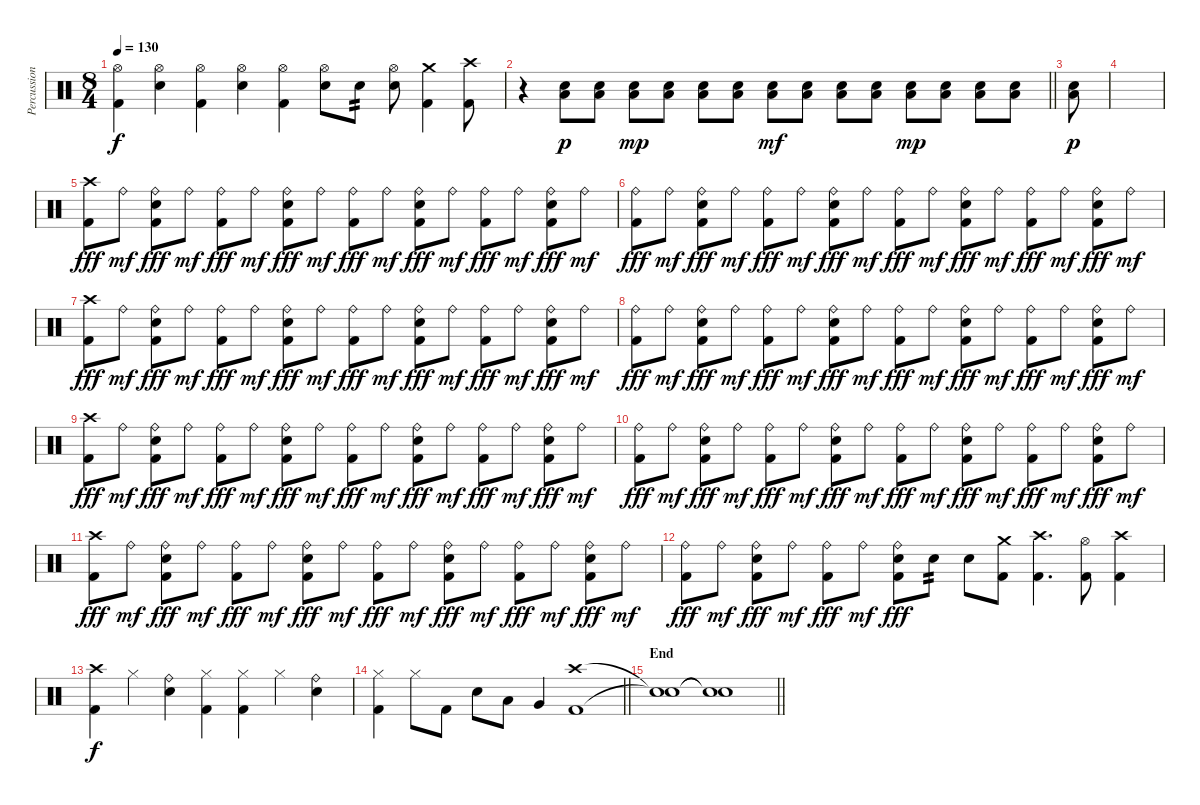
\track ("Percussion" "Percussion") {instrument percussion}
\staff {score}
\articulation defaults
\ts (8 4)
\tempo 130
\clef neutral
\ks c
("Hi-Hat (open)" "Kick (hit) 2").4{dy f} ("Hi-Hat (open)" "Snare (hit) 2").4 ("Hi-Hat (open)" "Kick (hit) 2").4 ("Hi-Hat (open)" "Snare (hit) 2").4 ("Hi-Hat (open)" "Kick (hit) 2").4 ("Hi-Hat (open)" "Snare (hit) 2").8 "Snare (hit) 2".8{tp 2} ("Hi-Hat (open)" "Snare (hit) 2").8 ("Crash medium (hit)" "Kick (hit) 2").4 ("Crash high (hit)" "Kick (hit) 2").8 |
\barLineRight lightlight
r.4 ("Low Floor Tom (hit)" "Snare (hit) 2").8{dy p} ("Low Floor Tom (hit)" "Snare (hit) 2").8 ("Low Floor Tom (hit)" "Snare (hit) 2").8{dy mp} ("Low Floor Tom (hit)" "Snare (hit) 2").8 ("Low Floor Tom (hit)" "Snare (hit) 2").8 ("Low Floor Tom (hit)" "Snare (hit) 2").8 ("Low Floor Tom (hit)" "Snare (hit) 2").8{dy mf} ("Low Floor Tom (hit)" "Snare (hit) 2").8 ("Low Floor Tom (hit)" "Snare (hit) 2").8 ("Low Floor Tom (hit)" "Snare (hit) 2").8 ("Low Floor Tom (hit)" "Snare (hit) 2").8{dy mp} ("Low Floor Tom (hit)" "Snare (hit) 2").8 ("Low Floor Tom (hit)" "Snare (hit) 2").8 ("Low Floor Tom (hit)" "Snare (hit) 2").8 |
("Low Floor Tom (hit)" "Snare (hit) 2").8{dy p} |
|
("Crash high (hit)" "Kick (hit) 2").8{dy fff} "Ride (bell)".8{dy mf} ("Ride (bell)" "Snare (hit) 2" "Kick (hit) 2").8{dy fff} "Ride (bell)".8{dy mf} ("Ride (bell)" "Kick (hit) 2").8{dy fff} "Ride (bell)".8{dy mf} ("Ride (bell)" "Snare (hit) 2" "Kick (hit) 2").8{dy fff} "Ride (bell)".8{dy mf} ("Ride (bell)" "Kick (hit) 2").8{dy fff} "Ride (bell)".8{dy mf} ("Ride (bell)" "Snare (hit) 2" "Kick (hit) 2").8{dy fff} "Ride (bell)".8{dy mf} ("Ride (bell)" "Kick (hit) 2").8{dy fff} "Ride (bell)".8{dy mf} ("Ride (bell)" "Snare (hit) 2" "Kick (hit) 2").8{dy fff} "Ride (bell)".8{dy mf} |
("Ride (bell)" "Kick (hit) 2").8{dy fff} "Ride (bell)".8{dy mf} ("Ride (bell)" "Snare (hit) 2" "Kick (hit) 2").8{dy fff} "Ride (bell)".8{dy mf} ("Ride (bell)" "Kick (hit) 2").8{dy fff} "Ride (bell)".8{dy mf} ("Ride (bell)" "Snare (hit) 2" "Kick (hit) 2").8{dy fff} "Ride (bell)".8{dy mf} ("Ride (bell)" "Kick (hit) 2").8{dy fff} "Ride (bell)".8{dy mf} ("Ride (bell)" "Snare (hit) 2" "Kick (hit) 2").8{dy fff} "Ride (bell)".8{dy mf} ("Ride (bell)" "Kick (hit) 2").8{dy fff} "Ride (bell)".8{dy mf} ("Ride (bell)" "Snare (hit) 2" "Kick (hit) 2").8{dy fff} "Ride (bell)".8{dy mf} |
("Crash high (hit)" "Kick (hit) 2").8{dy fff} "Ride (bell)".8{dy mf} ("Ride (bell)" "Snare (hit) 2" "Kick (hit) 2").8{dy fff} "Ride (bell)".8{dy mf} ("Ride (bell)" "Kick (hit) 2").8{dy fff} "Ride (bell)".8{dy mf} ("Ride (bell)" "Snare (hit) 2" "Kick (hit) 2").8{dy fff} "Ride (bell)".8{dy mf} ("Ride (bell)" "Kick (hit) 2").8{dy fff} "Ride (bell)".8{dy mf} ("Ride (bell)" "Snare (hit) 2" "Kick (hit) 2").8{dy fff} "Ride (bell)".8{dy mf} ("Ride (bell)" "Kick (hit) 2").8{dy fff} "Ride (bell)".8{dy mf} ("Ride (bell)" "Snare (hit) 2" "Kick (hit) 2").8{dy fff} "Ride (bell)".8{dy mf} |
("Ride (bell)" "Kick (hit) 2").8{dy fff} "Ride (bell)".8{dy mf} ("Ride (bell)" "Snare (hit) 2" "Kick (hit) 2").8{dy fff} "Ride (bell)".8{dy mf} ("Ride (bell)" "Kick (hit) 2").8{dy fff} "Ride (bell)".8{dy mf} ("Ride (bell)" "Snare (hit) 2" "Kick (hit) 2").8{dy fff} "Ride (bell)".8{dy mf} ("Ride (bell)" "Kick (hit) 2").8{dy fff} "Ride (bell)".8{dy mf} ("Ride (bell)" "Snare (hit) 2" "Kick (hit) 2").8{dy fff} "Ride (bell)".8{dy mf} ("Ride (bell)" "Kick (hit) 2").8{dy fff} "Ride (bell)".8{dy mf} ("Ride (bell)" "Snare (hit) 2" "Kick (hit) 2").8{dy fff} "Ride (bell)".8{dy mf} |
("Crash high (hit)" "Kick (hit) 2").8{dy fff} "Ride (bell)".8{dy mf} ("Ride (bell)" "Snare (hit) 2" "Kick (hit) 2").8{dy fff} "Ride (bell)".8{dy mf} ("Ride (bell)" "Kick (hit) 2").8{dy fff} "Ride (bell)".8{dy mf} ("Ride (bell)" "Snare (hit) 2" "Kick (hit) 2").8{dy fff} "Ride (bell)".8{dy mf} ("Ride (bell)" "Kick (hit) 2").8{dy fff} "Ride (bell)".8{dy mf} ("Ride (bell)" "Snare (hit) 2" "Kick (hit) 2").8{dy fff} "Ride (bell)".8{dy mf} ("Ride (bell)" "Kick (hit) 2").8{dy fff} "Ride (bell)".8{dy mf} ("Ride (bell)" "Snare (hit) 2" "Kick (hit) 2").8{dy fff} "Ride (bell)".8{dy mf} |
("Ride (bell)" "Kick (hit) 2").8{dy fff} "Ride (bell)".8{dy mf} ("Ride (bell)" "Snare (hit) 2" "Kick (hit) 2").8{dy fff} "Ride (bell)".8{dy mf} ("Ride (bell)" "Kick (hit) 2").8{dy fff} "Ride (bell)".8{dy mf} ("Ride (bell)" "Snare (hit) 2" "Kick (hit) 2").8{dy fff} "Ride (bell)".8{dy mf} ("Ride (bell)" "Kick (hit) 2").8{dy fff} "Ride (bell)".8{dy mf} ("Ride (bell)" "Snare (hit) 2" "Kick (hit) 2").8{dy fff} "Ride (bell)".8{dy mf} ("Ride (bell)" "Kick (hit) 2").8{dy fff} "Ride (bell)".8{dy mf} ("Ride (bell)" "Snare (hit) 2" "Kick (hit) 2").8{dy fff} "Ride (bell)".8{dy mf} |
("Crash high (hit)" "Kick (hit) 2").8{dy fff} "Ride (bell)".8{dy mf} ("Ride (bell)" "Snare (hit) 2" "Kick (hit) 2").8{dy fff} "Ride (bell)".8{dy mf} ("Ride (bell)" "Kick (hit) 2").8{dy fff} "Ride (bell)".8{dy mf} ("Ride (bell)" "Snare (hit) 2" "Kick (hit) 2").8{dy fff} "Ride (bell)".8{dy mf} ("Ride (bell)" "Kick (hit) 2").8{dy fff} "Ride (bell)".8{dy mf} ("Ride (bell)" "Snare (hit) 2" "Kick (hit) 2").8{dy fff} "Ride (bell)".8{dy mf} ("Ride (bell)" "Kick (hit) 2").8{dy fff} "Ride (bell)".8{dy mf} ("Ride (bell)" "Snare (hit) 2" "Kick (hit) 2").8{dy fff} "Ride (bell)".8{dy mf} |
("Ride (bell)" "Kick (hit) 2").8{dy fff} "Ride (bell)".8{dy mf} ("Ride (bell)" "Snare (hit) 2" "Kick (hit) 2").8{dy fff} "Ride (bell)".8{dy mf} ("Ride (bell)" "Kick (hit) 2").8{dy fff} "Ride (bell)".8{dy mf} ("Ride (bell)" "Snare (hit) 2" "Kick (hit) 2").8{dy fff} "Snare (hit) 2".8{tp 2} "Snare (hit) 2".8 ("Crash medium (hit)" "Kick (hit) 2").8 ("Crash high (hit)" "Kick (hit) 2").4{d} ("Hi-Hat (open)" "Kick (hit) 2").8 ("Crash high (hit)" "Kick (hit) 2").4 |
("Crash high (hit)" "Kick (hit) 2").4{dy f} "Hi-Hat (closed)".4 ("Ride (bell)" "Snare (hit) 2").4 ("Hi-Hat (closed)" "Kick (hit) 2").4 ("Hi-Hat (closed)" "Kick (hit) 2").4 "Hi-Hat (closed)".4 ("Ride (bell)" "Snare (hit) 2").4 |
\barLineRight lightlight
("Hi-Hat (closed)" "Kick (hit) 2").4 "Hi-Hat (closed)".8 "Kick (hit) 2".8 "Snare (hit) 2".8 "Low Tom (hit)".8 "Very Low Tom (hit)".4 ("Crash high (hit)" "Kick (hit) 2").1 |
\section ("" "End")
\barLineRight lightlight
("Snare (hit)"{t} "Snare (hit)"{t}).1 ("Snare (hit)"{t} "Snare (hit)"{t}).1
